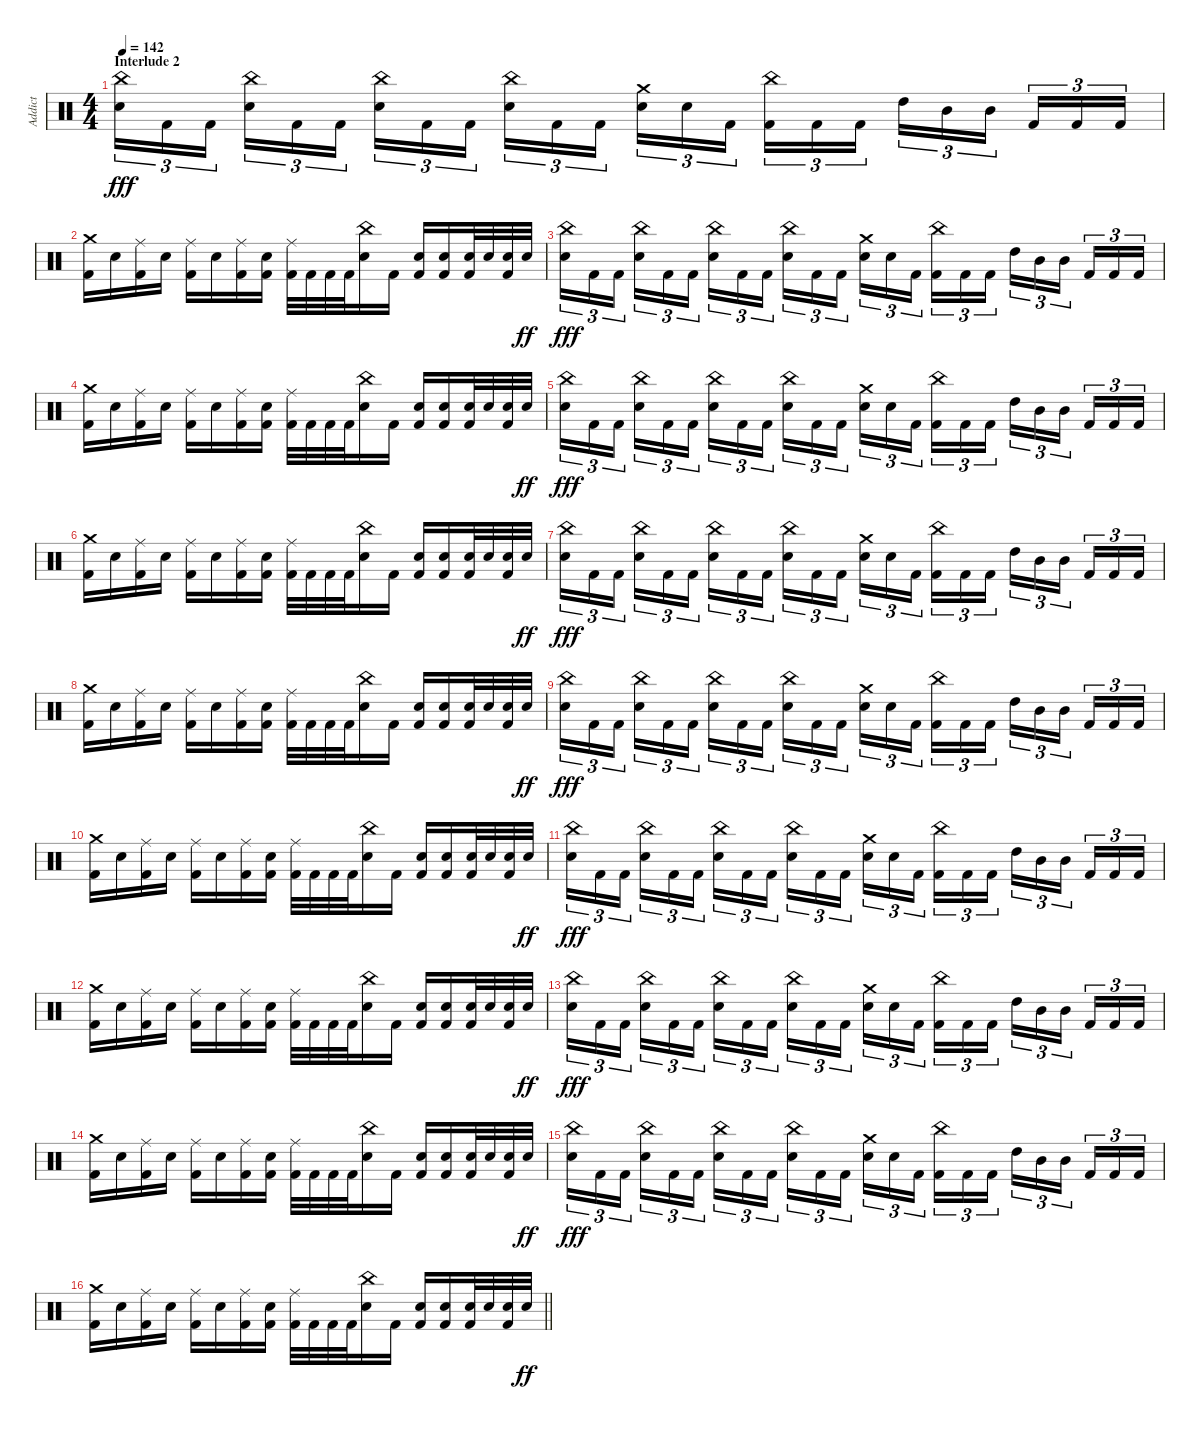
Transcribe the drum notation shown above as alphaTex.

\track ("Addict" "Addict") {instrument percussion}
\staff {score}
\articulation defaults
\ts (4 4)
\section ("" "Interlude 2")
\tempo 142
\clef neutral
\ks c
("Snare (hit) 2" "China (hit)").16{tu (3 2) dy fff} "Kick (hit) 2".16{tu (3 2)} "Kick (hit) 2".16{tu (3 2) beam splitsecondary} ("Snare (hit) 2" "China (hit)").16{tu (3 2)} "Kick (hit) 2".16{tu (3 2)} "Kick (hit) 2".16{tu (3 2)} ("Snare (hit) 2" "China (hit)").16{tu (3 2)} "Kick (hit) 2".16{tu (3 2)} "Kick (hit) 2".16{tu (3 2) beam splitsecondary} ("Snare (hit) 2" "China (hit)").16{tu (3 2)} "Kick (hit) 2".16{tu (3 2)} "Kick (hit) 2".16{tu (3 2)} ("Snare (hit) 2" "Crash medium (hit)").16{tu (3 2)} "Snare (hit) 2".16{tu (3 2)} "Kick (hit) 2".16{tu (3 2) beam splitsecondary} ("Kick (hit) 2" "China (hit)").16{tu (3 2)} "Kick (hit) 2".16{tu (3 2)} "Kick (hit) 2".16{tu (3 2)} "High Tom (hit)".16{tu (3 2)} "Mid Tom (hit)".16{tu (3 2)} "Mid Tom (hit)".16{tu (3 2) beam splitsecondary} "Kick (hit) 2".16{tu (3 2)} "Kick (hit) 2".16{tu (3 2)} "Kick (hit) 2".16{tu (3 2)} |
("Kick (hit) 2" "Crash medium (hit)").16 "Snare (hit) 2".16 ("Kick (hit) 2" "Ride (middle)").16 "Snare (hit) 2".16 ("Kick (hit) 2" "Ride (middle)").16 "Snare (hit) 2".16 ("Kick (hit) 2" "Ride (middle)").16 ("Kick (hit) 2" "Snare (hit) 2").16 ("Kick (hit) 2" "Ride (middle)").32 "Kick (hit) 2".32 "Kick (hit) 2".32 "Kick (hit) 2".32 ("Snare (hit) 2" "China (hit)").16 "Kick (hit) 2".16 ("Kick (hit) 2" "Snare (hit) 2").16 ("Kick (hit) 2" "Snare (hit) 2").16 ("Kick (hit) 2" "Snare (hit) 2").32 "Snare (hit) 2".32 ("Kick (hit) 2" "Snare (hit) 2").32 "Snare (hit) 2".32{dy ff} |
("Snare (hit) 2" "China (hit)").16{tu (3 2) dy fff} "Kick (hit) 2".16{tu (3 2)} "Kick (hit) 2".16{tu (3 2) beam splitsecondary} ("Snare (hit) 2" "China (hit)").16{tu (3 2)} "Kick (hit) 2".16{tu (3 2)} "Kick (hit) 2".16{tu (3 2)} ("Snare (hit) 2" "China (hit)").16{tu (3 2)} "Kick (hit) 2".16{tu (3 2)} "Kick (hit) 2".16{tu (3 2) beam splitsecondary} ("Snare (hit) 2" "China (hit)").16{tu (3 2)} "Kick (hit) 2".16{tu (3 2)} "Kick (hit) 2".16{tu (3 2)} ("Snare (hit) 2" "Crash medium (hit)").16{tu (3 2)} "Snare (hit) 2".16{tu (3 2)} "Kick (hit) 2".16{tu (3 2) beam splitsecondary} ("Kick (hit) 2" "China (hit)").16{tu (3 2)} "Kick (hit) 2".16{tu (3 2)} "Kick (hit) 2".16{tu (3 2)} "High Tom (hit)".16{tu (3 2)} "Mid Tom (hit)".16{tu (3 2)} "Mid Tom (hit)".16{tu (3 2) beam splitsecondary} "Kick (hit) 2".16{tu (3 2)} "Kick (hit) 2".16{tu (3 2)} "Kick (hit) 2".16{tu (3 2)} |
("Kick (hit) 2" "Crash medium (hit)").16 "Snare (hit) 2".16 ("Kick (hit) 2" "Ride (middle)").16 "Snare (hit) 2".16 ("Kick (hit) 2" "Ride (middle)").16 "Snare (hit) 2".16 ("Kick (hit) 2" "Ride (middle)").16 ("Kick (hit) 2" "Snare (hit) 2").16 ("Kick (hit) 2" "Ride (middle)").32 "Kick (hit) 2".32 "Kick (hit) 2".32 "Kick (hit) 2".32 ("Snare (hit) 2" "China (hit)").16 "Kick (hit) 2".16 ("Kick (hit) 2" "Snare (hit) 2").16 ("Kick (hit) 2" "Snare (hit) 2").16 ("Kick (hit) 2" "Snare (hit) 2").32 "Snare (hit) 2".32 ("Kick (hit) 2" "Snare (hit) 2").32 "Snare (hit) 2".32{dy ff} |
("Snare (hit) 2" "China (hit)").16{tu (3 2) dy fff} "Kick (hit) 2".16{tu (3 2)} "Kick (hit) 2".16{tu (3 2) beam splitsecondary} ("Snare (hit) 2" "China (hit)").16{tu (3 2)} "Kick (hit) 2".16{tu (3 2)} "Kick (hit) 2".16{tu (3 2)} ("Snare (hit) 2" "China (hit)").16{tu (3 2)} "Kick (hit) 2".16{tu (3 2)} "Kick (hit) 2".16{tu (3 2) beam splitsecondary} ("Snare (hit) 2" "China (hit)").16{tu (3 2)} "Kick (hit) 2".16{tu (3 2)} "Kick (hit) 2".16{tu (3 2)} ("Snare (hit) 2" "Crash medium (hit)").16{tu (3 2)} "Snare (hit) 2".16{tu (3 2)} "Kick (hit) 2".16{tu (3 2) beam splitsecondary} ("Kick (hit) 2" "China (hit)").16{tu (3 2)} "Kick (hit) 2".16{tu (3 2)} "Kick (hit) 2".16{tu (3 2)} "High Tom (hit)".16{tu (3 2)} "Mid Tom (hit)".16{tu (3 2)} "Mid Tom (hit)".16{tu (3 2) beam splitsecondary} "Kick (hit) 2".16{tu (3 2)} "Kick (hit) 2".16{tu (3 2)} "Kick (hit) 2".16{tu (3 2)} |
("Kick (hit) 2" "Crash medium (hit)").16 "Snare (hit) 2".16 ("Kick (hit) 2" "Ride (middle)").16 "Snare (hit) 2".16 ("Kick (hit) 2" "Ride (middle)").16 "Snare (hit) 2".16 ("Kick (hit) 2" "Ride (middle)").16 ("Kick (hit) 2" "Snare (hit) 2").16 ("Kick (hit) 2" "Ride (middle)").32 "Kick (hit) 2".32 "Kick (hit) 2".32 "Kick (hit) 2".32 ("Snare (hit) 2" "China (hit)").16 "Kick (hit) 2".16 ("Kick (hit) 2" "Snare (hit) 2").16 ("Kick (hit) 2" "Snare (hit) 2").16 ("Kick (hit) 2" "Snare (hit) 2").32 "Snare (hit) 2".32 ("Kick (hit) 2" "Snare (hit) 2").32 "Snare (hit) 2".32{dy ff} |
("Snare (hit) 2" "China (hit)").16{tu (3 2) dy fff} "Kick (hit) 2".16{tu (3 2)} "Kick (hit) 2".16{tu (3 2) beam splitsecondary} ("Snare (hit) 2" "China (hit)").16{tu (3 2)} "Kick (hit) 2".16{tu (3 2)} "Kick (hit) 2".16{tu (3 2)} ("Snare (hit) 2" "China (hit)").16{tu (3 2)} "Kick (hit) 2".16{tu (3 2)} "Kick (hit) 2".16{tu (3 2) beam splitsecondary} ("Snare (hit) 2" "China (hit)").16{tu (3 2)} "Kick (hit) 2".16{tu (3 2)} "Kick (hit) 2".16{tu (3 2)} ("Snare (hit) 2" "Crash medium (hit)").16{tu (3 2)} "Snare (hit) 2".16{tu (3 2)} "Kick (hit) 2".16{tu (3 2) beam splitsecondary} ("Kick (hit) 2" "China (hit)").16{tu (3 2)} "Kick (hit) 2".16{tu (3 2)} "Kick (hit) 2".16{tu (3 2)} "High Tom (hit)".16{tu (3 2)} "Mid Tom (hit)".16{tu (3 2)} "Mid Tom (hit)".16{tu (3 2) beam splitsecondary} "Kick (hit) 2".16{tu (3 2)} "Kick (hit) 2".16{tu (3 2)} "Kick (hit) 2".16{tu (3 2)} |
("Kick (hit) 2" "Crash medium (hit)").16 "Snare (hit) 2".16 ("Kick (hit) 2" "Ride (middle)").16 "Snare (hit) 2".16 ("Kick (hit) 2" "Ride (middle)").16 "Snare (hit) 2".16 ("Kick (hit) 2" "Ride (middle)").16 ("Kick (hit) 2" "Snare (hit) 2").16 ("Kick (hit) 2" "Ride (middle)").32 "Kick (hit) 2".32 "Kick (hit) 2".32 "Kick (hit) 2".32 ("Snare (hit) 2" "China (hit)").16 "Kick (hit) 2".16 ("Kick (hit) 2" "Snare (hit) 2").16 ("Kick (hit) 2" "Snare (hit) 2").16 ("Kick (hit) 2" "Snare (hit) 2").32 "Snare (hit) 2".32 ("Kick (hit) 2" "Snare (hit) 2").32 "Snare (hit) 2".32{dy ff} |
("Snare (hit) 2" "China (hit)").16{tu (3 2) dy fff} "Kick (hit) 2".16{tu (3 2)} "Kick (hit) 2".16{tu (3 2) beam splitsecondary} ("Snare (hit) 2" "China (hit)").16{tu (3 2)} "Kick (hit) 2".16{tu (3 2)} "Kick (hit) 2".16{tu (3 2)} ("Snare (hit) 2" "China (hit)").16{tu (3 2)} "Kick (hit) 2".16{tu (3 2)} "Kick (hit) 2".16{tu (3 2) beam splitsecondary} ("Snare (hit) 2" "China (hit)").16{tu (3 2)} "Kick (hit) 2".16{tu (3 2)} "Kick (hit) 2".16{tu (3 2)} ("Snare (hit) 2" "Crash medium (hit)").16{tu (3 2)} "Snare (hit) 2".16{tu (3 2)} "Kick (hit) 2".16{tu (3 2) beam splitsecondary} ("Kick (hit) 2" "China (hit)").16{tu (3 2)} "Kick (hit) 2".16{tu (3 2)} "Kick (hit) 2".16{tu (3 2)} "High Tom (hit)".16{tu (3 2)} "Mid Tom (hit)".16{tu (3 2)} "Mid Tom (hit)".16{tu (3 2) beam splitsecondary} "Kick (hit) 2".16{tu (3 2)} "Kick (hit) 2".16{tu (3 2)} "Kick (hit) 2".16{tu (3 2)} |
("Kick (hit) 2" "Crash medium (hit)").16 "Snare (hit) 2".16 ("Kick (hit) 2" "Ride (middle)").16 "Snare (hit) 2".16 ("Kick (hit) 2" "Ride (middle)").16 "Snare (hit) 2".16 ("Kick (hit) 2" "Ride (middle)").16 ("Kick (hit) 2" "Snare (hit) 2").16 ("Kick (hit) 2" "Ride (middle)").32 "Kick (hit) 2".32 "Kick (hit) 2".32 "Kick (hit) 2".32 ("Snare (hit) 2" "China (hit)").16 "Kick (hit) 2".16 ("Kick (hit) 2" "Snare (hit) 2").16 ("Kick (hit) 2" "Snare (hit) 2").16 ("Kick (hit) 2" "Snare (hit) 2").32 "Snare (hit) 2".32 ("Kick (hit) 2" "Snare (hit) 2").32 "Snare (hit) 2".32{dy ff} |
("Snare (hit) 2" "China (hit)").16{tu (3 2) dy fff} "Kick (hit) 2".16{tu (3 2)} "Kick (hit) 2".16{tu (3 2) beam splitsecondary} ("Snare (hit) 2" "China (hit)").16{tu (3 2)} "Kick (hit) 2".16{tu (3 2)} "Kick (hit) 2".16{tu (3 2)} ("Snare (hit) 2" "China (hit)").16{tu (3 2)} "Kick (hit) 2".16{tu (3 2)} "Kick (hit) 2".16{tu (3 2) beam splitsecondary} ("Snare (hit) 2" "China (hit)").16{tu (3 2)} "Kick (hit) 2".16{tu (3 2)} "Kick (hit) 2".16{tu (3 2)} ("Snare (hit) 2" "Crash medium (hit)").16{tu (3 2)} "Snare (hit) 2".16{tu (3 2)} "Kick (hit) 2".16{tu (3 2) beam splitsecondary} ("Kick (hit) 2" "China (hit)").16{tu (3 2)} "Kick (hit) 2".16{tu (3 2)} "Kick (hit) 2".16{tu (3 2)} "High Tom (hit)".16{tu (3 2)} "Mid Tom (hit)".16{tu (3 2)} "Mid Tom (hit)".16{tu (3 2) beam splitsecondary} "Kick (hit) 2".16{tu (3 2)} "Kick (hit) 2".16{tu (3 2)} "Kick (hit) 2".16{tu (3 2)} |
("Kick (hit) 2" "Crash medium (hit)").16 "Snare (hit) 2".16 ("Kick (hit) 2" "Ride (middle)").16 "Snare (hit) 2".16 ("Kick (hit) 2" "Ride (middle)").16 "Snare (hit) 2".16 ("Kick (hit) 2" "Ride (middle)").16 ("Kick (hit) 2" "Snare (hit) 2").16 ("Kick (hit) 2" "Ride (middle)").32 "Kick (hit) 2".32 "Kick (hit) 2".32 "Kick (hit) 2".32 ("Snare (hit) 2" "China (hit)").16 "Kick (hit) 2".16 ("Kick (hit) 2" "Snare (hit) 2").16 ("Kick (hit) 2" "Snare (hit) 2").16 ("Kick (hit) 2" "Snare (hit) 2").32 "Snare (hit) 2".32 ("Kick (hit) 2" "Snare (hit) 2").32 "Snare (hit) 2".32{dy ff} |
("Snare (hit) 2" "China (hit)").16{tu (3 2) dy fff} "Kick (hit) 2".16{tu (3 2)} "Kick (hit) 2".16{tu (3 2) beam splitsecondary} ("Snare (hit) 2" "China (hit)").16{tu (3 2)} "Kick (hit) 2".16{tu (3 2)} "Kick (hit) 2".16{tu (3 2)} ("Snare (hit) 2" "China (hit)").16{tu (3 2)} "Kick (hit) 2".16{tu (3 2)} "Kick (hit) 2".16{tu (3 2) beam splitsecondary} ("Snare (hit) 2" "China (hit)").16{tu (3 2)} "Kick (hit) 2".16{tu (3 2)} "Kick (hit) 2".16{tu (3 2)} ("Snare (hit) 2" "Crash medium (hit)").16{tu (3 2)} "Snare (hit) 2".16{tu (3 2)} "Kick (hit) 2".16{tu (3 2) beam splitsecondary} ("Kick (hit) 2" "China (hit)").16{tu (3 2)} "Kick (hit) 2".16{tu (3 2)} "Kick (hit) 2".16{tu (3 2)} "High Tom (hit)".16{tu (3 2)} "Mid Tom (hit)".16{tu (3 2)} "Mid Tom (hit)".16{tu (3 2) beam splitsecondary} "Kick (hit) 2".16{tu (3 2)} "Kick (hit) 2".16{tu (3 2)} "Kick (hit) 2".16{tu (3 2)} |
("Kick (hit) 2" "Crash medium (hit)").16 "Snare (hit) 2".16 ("Kick (hit) 2" "Ride (middle)").16 "Snare (hit) 2".16 ("Kick (hit) 2" "Ride (middle)").16 "Snare (hit) 2".16 ("Kick (hit) 2" "Ride (middle)").16 ("Kick (hit) 2" "Snare (hit) 2").16 ("Kick (hit) 2" "Ride (middle)").32 "Kick (hit) 2".32 "Kick (hit) 2".32 "Kick (hit) 2".32 ("Snare (hit) 2" "China (hit)").16 "Kick (hit) 2".16 ("Kick (hit) 2" "Snare (hit) 2").16 ("Kick (hit) 2" "Snare (hit) 2").16 ("Kick (hit) 2" "Snare (hit) 2").32 "Snare (hit) 2".32 ("Kick (hit) 2" "Snare (hit) 2").32 "Snare (hit) 2".32{dy ff} |
("Snare (hit) 2" "China (hit)").16{tu (3 2) dy fff} "Kick (hit) 2".16{tu (3 2)} "Kick (hit) 2".16{tu (3 2) beam splitsecondary} ("Snare (hit) 2" "China (hit)").16{tu (3 2)} "Kick (hit) 2".16{tu (3 2)} "Kick (hit) 2".16{tu (3 2)} ("Snare (hit) 2" "China (hit)").16{tu (3 2)} "Kick (hit) 2".16{tu (3 2)} "Kick (hit) 2".16{tu (3 2) beam splitsecondary} ("Snare (hit) 2" "China (hit)").16{tu (3 2)} "Kick (hit) 2".16{tu (3 2)} "Kick (hit) 2".16{tu (3 2)} ("Snare (hit) 2" "Crash medium (hit)").16{tu (3 2)} "Snare (hit) 2".16{tu (3 2)} "Kick (hit) 2".16{tu (3 2) beam splitsecondary} ("Kick (hit) 2" "China (hit)").16{tu (3 2)} "Kick (hit) 2".16{tu (3 2)} "Kick (hit) 2".16{tu (3 2)} "High Tom (hit)".16{tu (3 2)} "Mid Tom (hit)".16{tu (3 2)} "Mid Tom (hit)".16{tu (3 2) beam splitsecondary} "Kick (hit) 2".16{tu (3 2)} "Kick (hit) 2".16{tu (3 2)} "Kick (hit) 2".16{tu (3 2)} |
\barLineRight lightlight
("Kick (hit) 2" "Crash medium (hit)").16 "Snare (hit) 2".16 ("Kick (hit) 2" "Ride (middle)").16 "Snare (hit) 2".16 ("Kick (hit) 2" "Ride (middle)").16 "Snare (hit) 2".16 ("Kick (hit) 2" "Ride (middle)").16 ("Kick (hit) 2" "Snare (hit) 2").16 ("Kick (hit) 2" "Ride (middle)").32 "Kick (hit) 2".32 "Kick (hit) 2".32 "Kick (hit) 2".32 ("Snare (hit) 2" "China (hit)").16 "Kick (hit) 2".16 ("Kick (hit) 2" "Snare (hit) 2").16 ("Kick (hit) 2" "Snare (hit) 2").16 ("Kick (hit) 2" "Snare (hit) 2").32 "Snare (hit) 2".32 ("Kick (hit) 2" "Snare (hit) 2").32 "Snare (hit) 2".32{dy ff}
